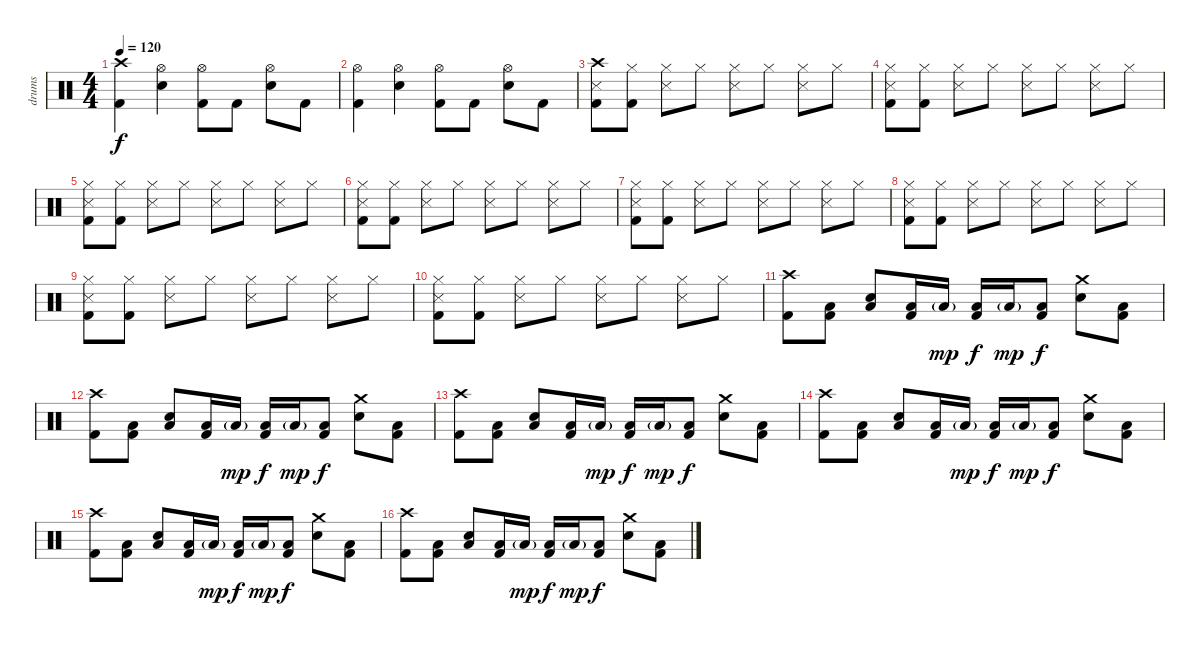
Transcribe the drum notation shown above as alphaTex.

\track ("drums" "drums") {instrument percussion}
\staff {score}
\articulation defaults
\ts (4 4)
\tempo 120
\clef neutral
\ks c
("Crash high (hit)" "Kick (hit) 2").4{dy f} ("Hi-Hat (open)" "Snare (hit) 2").4 ("Hi-Hat (open)" "Kick (hit) 2").8 "Kick (hit) 2".8 ("Hi-Hat (open)" "Snare (hit) 2").8 "Kick (hit) 2".8 |
("Hi-Hat (open)" "Kick (hit) 2").4 ("Hi-Hat (open)" "Snare (hit) 2").4 ("Hi-Hat (open)" "Kick (hit) 2").8 "Kick (hit) 2".8 ("Hi-Hat (open)" "Snare (hit) 2").8 "Kick (hit) 2".8 |
("Crash high (hit)" "Snare (side stick) 3" "Kick (hit) 2").8 ("Hi-Hat (closed)" "Kick (hit) 2").8 ("Hi-Hat (closed)" "Snare (side stick) 3").8 "Hi-Hat (closed)".8 ("Hi-Hat (closed)" "Snare (side stick) 3").8 "Hi-Hat (closed)".8 ("Hi-Hat (closed)" "Snare (side stick) 3").8 "Hi-Hat (closed)".8 |
("Hi-Hat (closed)" "Snare (side stick) 3" "Kick (hit) 2").8 ("Hi-Hat (closed)" "Kick (hit) 2").8 ("Hi-Hat (closed)" "Snare (side stick) 3").8 "Hi-Hat (closed)".8 ("Hi-Hat (closed)" "Snare (side stick) 3").8 "Hi-Hat (closed)".8 ("Hi-Hat (closed)" "Snare (side stick) 3").8 "Hi-Hat (closed)".8 |
("Hi-Hat (closed)" "Snare (side stick) 3" "Kick (hit) 2").8 ("Hi-Hat (closed)" "Kick (hit) 2").8 ("Hi-Hat (closed)" "Snare (side stick) 3").8 "Hi-Hat (closed)".8 ("Hi-Hat (closed)" "Snare (side stick) 3").8 "Hi-Hat (closed)".8 ("Hi-Hat (closed)" "Snare (side stick) 3").8 "Hi-Hat (closed)".8 |
("Hi-Hat (closed)" "Snare (side stick) 3" "Kick (hit) 2").8 ("Hi-Hat (closed)" "Kick (hit) 2").8 ("Hi-Hat (closed)" "Snare (side stick) 3").8 "Hi-Hat (closed)".8 ("Hi-Hat (closed)" "Snare (side stick) 3").8 "Hi-Hat (closed)".8 ("Hi-Hat (closed)" "Snare (side stick) 3").8 "Hi-Hat (closed)".8 |
("Hi-Hat (closed)" "Snare (side stick) 3" "Kick (hit) 2").8 ("Hi-Hat (closed)" "Kick (hit) 2").8 ("Hi-Hat (closed)" "Snare (side stick) 3").8 "Hi-Hat (closed)".8 ("Hi-Hat (closed)" "Snare (side stick) 3").8 "Hi-Hat (closed)".8 ("Hi-Hat (closed)" "Snare (side stick) 3").8 "Hi-Hat (closed)".8 |
("Hi-Hat (closed)" "Snare (side stick) 3" "Kick (hit) 2").8 ("Hi-Hat (closed)" "Kick (hit) 2").8 ("Hi-Hat (closed)" "Snare (side stick) 3").8 "Hi-Hat (closed)".8 ("Hi-Hat (closed)" "Snare (side stick) 3").8 "Hi-Hat (closed)".8 ("Hi-Hat (closed)" "Snare (side stick) 3").8 "Hi-Hat (closed)".8 |
("Hi-Hat (closed)" "Snare (side stick) 3" "Kick (hit) 2").8 ("Hi-Hat (closed)" "Kick (hit) 2").8 ("Hi-Hat (closed)" "Snare (side stick) 3").8 "Hi-Hat (closed)".8 ("Hi-Hat (closed)" "Snare (side stick) 3").8 "Hi-Hat (closed)".8 ("Hi-Hat (closed)" "Snare (side stick) 3").8 "Hi-Hat (closed)".8 |
("Hi-Hat (closed)" "Snare (side stick) 3" "Kick (hit) 2").8 ("Hi-Hat (closed)" "Kick (hit) 2").8 ("Hi-Hat (closed)" "Snare (side stick) 3").8 "Hi-Hat (closed)".8 ("Hi-Hat (closed)" "Snare (side stick) 3").8 "Hi-Hat (closed)".8 ("Hi-Hat (closed)" "Snare (side stick) 3").8 "Hi-Hat (closed)".8 |
("Crash high (hit)" "Kick (hit) 2").8 ("Low Floor Tom (hit)" "Kick (hit) 2").8 ("Low Floor Tom (hit)" "Snare (hit) 2").8 ("Low Floor Tom (hit)" "Kick (hit) 2").16 "Low Floor Tom (hit)"{g}.16{dy mp} ("Low Floor Tom (hit)" "Kick (hit) 2").16{dy f} "Low Floor Tom (hit)"{g}.16{dy mp} ("Low Floor Tom (hit)" "Kick (hit) 2").8{dy f} ("Crash medium (hit)" "Snare (hit) 2").8 ("Low Floor Tom (hit)" "Kick (hit) 2").8 |
("Crash high (hit)" "Kick (hit) 2").8 ("Low Floor Tom (hit)" "Kick (hit) 2").8 ("Low Floor Tom (hit)" "Snare (hit) 2").8 ("Low Floor Tom (hit)" "Kick (hit) 2").16 "Low Floor Tom (hit)"{g}.16{dy mp} ("Low Floor Tom (hit)" "Kick (hit) 2").16{dy f} "Low Floor Tom (hit)"{g}.16{dy mp} ("Low Floor Tom (hit)" "Kick (hit) 2").8{dy f} ("Crash medium (hit)" "Snare (hit) 2").8 ("Low Floor Tom (hit)" "Kick (hit) 2").8 |
("Crash high (hit)" "Kick (hit) 2").8 ("Low Floor Tom (hit)" "Kick (hit) 2").8 ("Low Floor Tom (hit)" "Snare (hit) 2").8 ("Low Floor Tom (hit)" "Kick (hit) 2").16 "Low Floor Tom (hit)"{g}.16{dy mp} ("Low Floor Tom (hit)" "Kick (hit) 2").16{dy f} "Low Floor Tom (hit)"{g}.16{dy mp} ("Low Floor Tom (hit)" "Kick (hit) 2").8{dy f} ("Crash medium (hit)" "Snare (hit) 2").8 ("Low Floor Tom (hit)" "Kick (hit) 2").8 |
("Crash high (hit)" "Kick (hit) 2").8 ("Low Floor Tom (hit)" "Kick (hit) 2").8 ("Low Floor Tom (hit)" "Snare (hit) 2").8 ("Low Floor Tom (hit)" "Kick (hit) 2").16 "Low Floor Tom (hit)"{g}.16{dy mp} ("Low Floor Tom (hit)" "Kick (hit) 2").16{dy f} "Low Floor Tom (hit)"{g}.16{dy mp} ("Low Floor Tom (hit)" "Kick (hit) 2").8{dy f} ("Crash medium (hit)" "Snare (hit) 2").8 ("Low Floor Tom (hit)" "Kick (hit) 2").8 |
("Crash high (hit)" "Kick (hit) 2").8 ("Low Floor Tom (hit)" "Kick (hit) 2").8 ("Low Floor Tom (hit)" "Snare (hit) 2").8 ("Low Floor Tom (hit)" "Kick (hit) 2").16 "Low Floor Tom (hit)"{g}.16{dy mp} ("Low Floor Tom (hit)" "Kick (hit) 2").16{dy f} "Low Floor Tom (hit)"{g}.16{dy mp} ("Low Floor Tom (hit)" "Kick (hit) 2").8{dy f} ("Crash medium (hit)" "Snare (hit) 2").8 ("Low Floor Tom (hit)" "Kick (hit) 2").8 |
("Crash high (hit)" "Kick (hit) 2").8 ("Low Floor Tom (hit)" "Kick (hit) 2").8 ("Low Floor Tom (hit)" "Snare (hit) 2").8 ("Low Floor Tom (hit)" "Kick (hit) 2").16 "Low Floor Tom (hit)"{g}.16{dy mp} ("Low Floor Tom (hit)" "Kick (hit) 2").16{dy f} "Low Floor Tom (hit)"{g}.16{dy mp} ("Low Floor Tom (hit)" "Kick (hit) 2").8{dy f} ("Crash medium (hit)" "Snare (hit) 2").8 ("Low Floor Tom (hit)" "Kick (hit) 2").8
